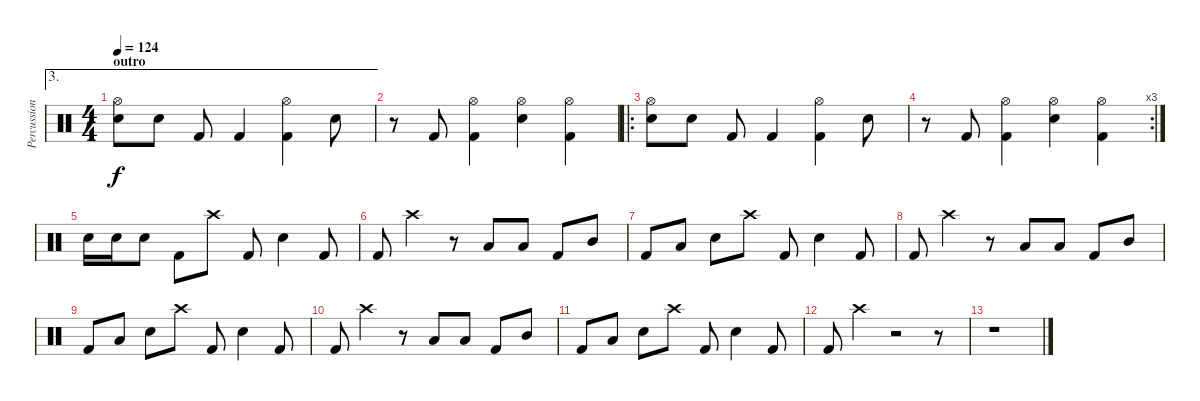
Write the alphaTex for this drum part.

\track ("Percussion" "Percussion") {instrument percussion}
\staff {score}
\articulation defaults
\ae 3
\ts (4 4)
\section ("" "outro")
\tempo 124
\clef neutral
\ks c
("Hi-Hat (open)" "Electric Snare (hit)").8{dy f} "Electric Snare (hit)".8 "Kick (hit) 2".8 "Kick (hit) 2".4 ("Hi-Hat (open)" "Kick (hit) 2").4 "Electric Snare (hit)".8 |
r.8 "Kick (hit) 2".8 ("Hi-Hat (open)" "Kick (hit) 2").4 ("Hi-Hat (open)" "Electric Snare (hit)").4 ("Hi-Hat (open)" "Kick (hit) 2").4 |
\ro
("Hi-Hat (open)" "Electric Snare (hit)").8 "Electric Snare (hit)".8 "Kick (hit) 2".8 "Kick (hit) 2".4 ("Hi-Hat (open)" "Kick (hit) 2").4 "Electric Snare (hit)".8 |
\rc 3
r.8 "Kick (hit) 2".8 ("Hi-Hat (open)" "Kick (hit) 2").4 ("Hi-Hat (open)" "Electric Snare (hit)").4 ("Hi-Hat (open)" "Kick (hit) 2").4 |
"Electric Snare (hit)".16 "Electric Snare (hit)".16 "Electric Snare (hit)".8 "Kick (hit) 2".8 "Crash high (hit)".8 "Kick (hit) 2".8 "Electric Snare (hit)".4 "Kick (hit) 2".8 |
"Kick (hit) 2".8 "Crash high (hit)".4 r.8 "Low Tom (hit)".8 "Low Tom (hit)".8 "Kick (hit) 2".8 "Mid Tom (hit)".8 |
"Kick (hit) 2".8 "Low Tom (hit)".8 "Electric Snare (hit)".8 "Crash high (hit)".8 "Kick (hit) 2".8 "Electric Snare (hit)".4 "Kick (hit) 2".8 |
"Kick (hit) 2".8 "Crash high (hit)".4 r.8 "Low Tom (hit)".8 "Low Tom (hit)".8 "Kick (hit) 2".8 "Mid Tom (hit)".8 |
"Kick (hit) 2".8 "Low Tom (hit)".8 "Electric Snare (hit)".8 "Crash high (hit)".8 "Kick (hit) 2".8 "Electric Snare (hit)".4 "Kick (hit) 2".8 |
"Kick (hit) 2".8 "Crash high (hit)".4 r.8 "Low Tom (hit)".8 "Low Tom (hit)".8 "Kick (hit) 2".8 "Mid Tom (hit)".8 |
"Kick (hit) 2".8 "Low Tom (hit)".8 "Electric Snare (hit)".8 "Crash high (hit)".8 "Kick (hit) 2".8 "Electric Snare (hit)".4 "Kick (hit) 2".8 |
"Kick (hit) 2".8 "Crash high (hit)".4 r.2 r.8 |
r.1
